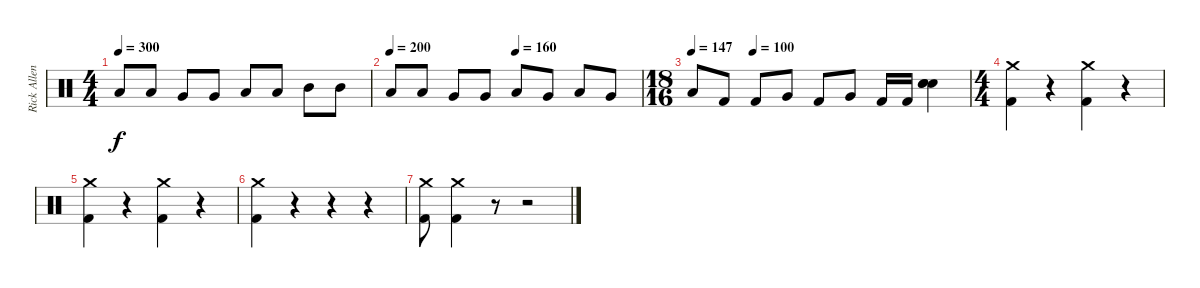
\track ("Rick Allen" "Rick Allen") {instrument percussion}
\staff {score}
\articulation defaults
\ts (4 4)
\tempo 300
\clef neutral
\ks c "Low Tom (hit)".8{dy f} "Low Tom (hit)".8 "Very Low Tom (hit)".8 "Very Low Tom (hit)".8 "Low Tom (hit)".8 "Low Tom (hit)".8 "Mid Tom (hit)".8 "Mid Tom (hit)".8
|
\tempo 200
\tempo (160 0.5)
"Low Tom (hit)".8 "Low Tom (hit)".8 "Very Low Tom (hit)".8 "Very Low Tom (hit)".8 "Low Tom (hit)".8 "Very Low Tom (hit)".8 "Low Tom (hit)".8 "Very Low Tom (hit)".8 |
\ts (18 16)
\tempo 147
\tempo (100 0.2222222222222222)
"Low Tom (hit)".8 "Kick (hit) 2".8 "Kick (hit) 2".8 "Very Low Tom (hit)".8 "Kick (hit) 2".8 "Very Low Tom (hit)".8 "Kick (hit) 2".16 "Kick (hit) 2".16 ("Snare (hit) 2" "Snare (hit) 2" "Snare (hit) 2").4 |
\ts (4 4)
("Crash medium (hit)" "Kick (hit) 2").4 r.4 ("Crash medium (hit)" "Kick (hit) 2").4 r.4 |
("Crash medium (hit)" "Kick (hit) 2").4 r.4 ("Crash medium (hit)" "Kick (hit) 2").4 r.4 |
("Crash medium (hit)" "Kick (hit) 2").4 r.4 r.4 r.4 |
("Crash medium (hit)" "Kick (hit) 2").8 ("Crash medium (hit)" "Kick (hit) 2").4 r.8 r.2
